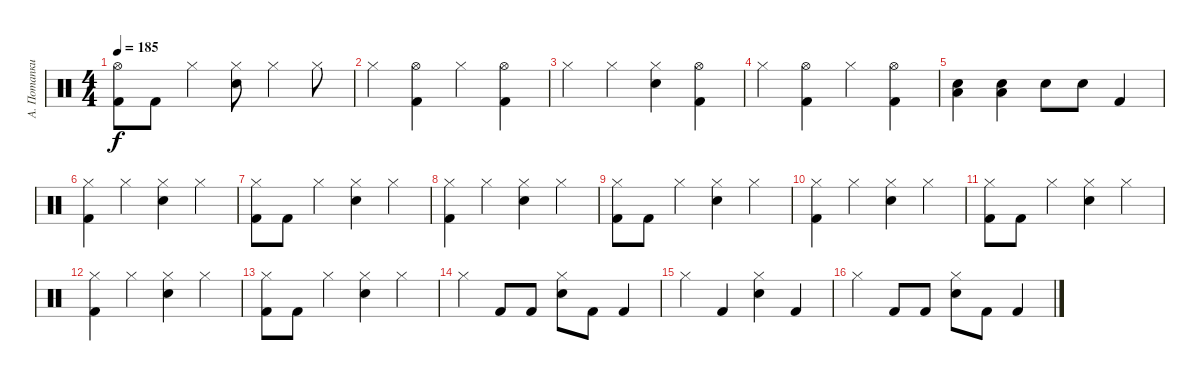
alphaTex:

\track ("А. Потапкин" "А. Потапки") {instrument percussion}
\staff {score}
\articulation defaults
\ts (4 4)
\tempo 185
\clef neutral
\ks c
("Hi-Hat (open)" "Kick (hit) 2").8{dy f} "Kick (hit) 2".8 "Hi-Hat (closed)".4 ("Hi-Hat (closed)" "Snare (hit) 2").8 "Hi-Hat (closed)".4 "Hi-Hat (closed)".8 |
"Hi-Hat (closed)".4 ("Hi-Hat (open)" "Kick (hit) 2").4 "Hi-Hat (closed)".4 ("Hi-Hat (open)" "Kick (hit) 2").4 |
"Hi-Hat (closed)".4 "Hi-Hat (closed)".4 ("Hi-Hat (closed)" "Snare (hit) 2").4 ("Hi-Hat (open)" "Kick (hit) 2").4 |
"Hi-Hat (closed)".4 ("Hi-Hat (open)" "Kick (hit) 2").4 "Hi-Hat (closed)".4 ("Hi-Hat (open)" "Kick (hit) 2").4 |
("Snare (hit) 2" "Low Floor Tom (hit)").4 ("Snare (hit) 2" "Low Floor Tom (hit)").4 "Electric Snare (hit)".8 "Electric Snare (hit)".8 "Kick (hit) 2".4 |
("Hi-Hat (closed)" "Kick (hit) 2").4 "Hi-Hat (closed)".4 ("Hi-Hat (closed)" "Snare (hit) 2").4 "Hi-Hat (closed)".4 |
("Hi-Hat (closed)" "Kick (hit) 2").8 "Kick (hit) 2".8 "Hi-Hat (closed)".4 ("Hi-Hat (closed)" "Snare (hit) 2").4 "Hi-Hat (closed)".4 |
("Hi-Hat (closed)" "Kick (hit) 2").4 "Hi-Hat (closed)".4 ("Hi-Hat (closed)" "Snare (hit) 2").4 "Hi-Hat (closed)".4 |
("Hi-Hat (closed)" "Kick (hit) 2").8 "Kick (hit) 2".8 "Hi-Hat (closed)".4 ("Hi-Hat (closed)" "Snare (hit) 2").4 "Hi-Hat (closed)".4 |
("Hi-Hat (closed)" "Kick (hit) 2").4 "Hi-Hat (closed)".4 ("Hi-Hat (closed)" "Snare (hit) 2").4 "Hi-Hat (closed)".4 |
("Hi-Hat (closed)" "Kick (hit) 2").8 "Kick (hit) 2".8 "Hi-Hat (closed)".4 ("Hi-Hat (closed)" "Snare (hit) 2").4 "Hi-Hat (closed)".4 |
("Hi-Hat (closed)" "Kick (hit) 2").4 "Hi-Hat (closed)".4 ("Hi-Hat (closed)" "Snare (hit) 2").4 "Hi-Hat (closed)".4 |
("Hi-Hat (closed)" "Kick (hit) 2").8 "Kick (hit) 2".8 "Hi-Hat (closed)".4 ("Hi-Hat (closed)" "Snare (hit) 2").4 "Hi-Hat (closed)".4 |
"Hi-Hat (closed)".4 "Kick (hit) 2".8 "Kick (hit) 2".8 ("Hi-Hat (closed)" "Snare (hit) 2").8 "Kick (hit) 2".8 "Kick (hit) 2".4 |
"Hi-Hat (closed)".4 "Kick (hit) 2".4 ("Hi-Hat (closed)" "Snare (hit) 2").4 "Kick (hit) 2".4 |
"Hi-Hat (closed)".4 "Kick (hit) 2".8 "Kick (hit) 2".8 ("Hi-Hat (closed)" "Snare (hit) 2").8 "Kick (hit) 2".8 "Kick (hit) 2".4
